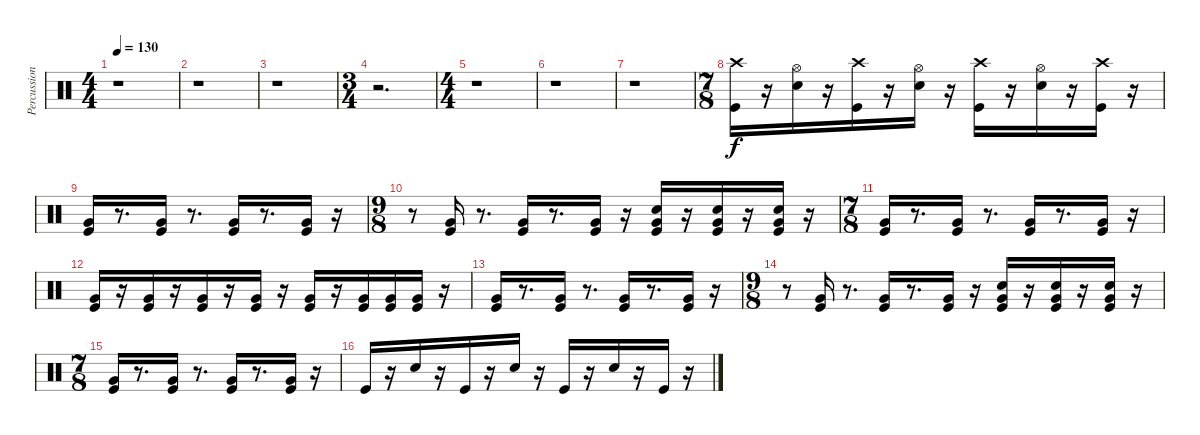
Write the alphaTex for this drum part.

\track ("Percussions" "Percussion") {instrument percussion}
\staff {score}
\articulation defaults
\ts (4 4)
\tempo 130
\clef neutral
\ks c
r.1{dy f} |
r.1 |
r.1 |
\ts (3 4)
r.2{d} |
\ts (4 4)
r.1 |
r.1 |
r.1 |
\ts (7 8)
("Kick (hit)" "Crash high (hit)").16 r.16 ("Hi-Hat (open)" "Electric Snare (hit)").16 r.16 ("Kick (hit)" "Crash high (hit)").16 r.16 ("Hi-Hat (open)" "Electric Snare (hit)").16 r.16 ("Crash high (hit)" "Kick (hit)").16 r.16 ("Hi-Hat (open)" "Electric Snare (hit)").16 r.16 ("Crash high (hit)" "Kick (hit)").16 r.16 |
("Kick (hit)" "Very Low Tom (hit)").16 r.8{d} ("Very Low Tom (hit)" "Kick (hit)").16 r.8{d} ("Kick (hit)" "Very Low Tom (hit)").16 r.8{d} ("Very Low Tom (hit)" "Kick (hit)").16 r.16 |
\ts (9 8)
r.8 ("Kick (hit)" "Very Low Tom (hit)").16 r.8{d} ("Kick (hit)" "Very Low Tom (hit)").16 r.8{d} ("Very Low Tom (hit)" "Kick (hit)").16 r.16 ("Electric Snare (hit)" "Very Low Tom (hit)" "Kick (hit)").16 r.16 ("Kick (hit)" "Very Low Tom (hit)" "Electric Snare (hit)").16 r.16 ("Electric Snare (hit)" "Kick (hit)" "Very Low Tom (hit)").16 r.16 |
\ts (7 8)
("Very Low Tom (hit)" "Kick (hit)").16 r.8{d} ("Kick (hit)" "Very Low Tom (hit)").16 r.8{d} ("Kick (hit)" "Very Low Tom (hit)").16 r.8{d} ("Kick (hit)" "Very Low Tom (hit)").16 r.16 |
("Very Low Tom (hit)" "Kick (hit)").16 r.16 ("Kick (hit)" "Very Low Tom (hit)").16 r.16 ("Very Low Tom (hit)" "Kick (hit)").16 r.16 ("Kick (hit)" "Very Low Tom (hit)").16 r.16 ("Kick (hit)" "Very Low Tom (hit)").16 r.16 ("Very Low Tom (hit)" "Kick (hit)").16 ("Very Low Tom (hit)" "Kick (hit)").16 ("Very Low Tom (hit)" "Kick (hit)").16 r.16 |
("Kick (hit)" "Very Low Tom (hit)").16 r.8{d} ("Very Low Tom (hit)" "Kick (hit)").16 r.8{d} ("Kick (hit)" "Very Low Tom (hit)").16 r.8{d} ("Very Low Tom (hit)" "Kick (hit)").16 r.16 |
\ts (9 8)
r.8 ("Kick (hit)" "Very Low Tom (hit)").16 r.8{d} ("Kick (hit)" "Very Low Tom (hit)").16 r.8{d} ("Very Low Tom (hit)" "Kick (hit)").16 r.16 ("Electric Snare (hit)" "Very Low Tom (hit)" "Kick (hit)").16 r.16 ("Kick (hit)" "Very Low Tom (hit)" "Electric Snare (hit)").16 r.16 ("Electric Snare (hit)" "Kick (hit)" "Very Low Tom (hit)").16 r.16 |
\ts (7 8)
("Kick (hit)" "Very Low Tom (hit)").16 r.8{d} ("Kick (hit)" "Very Low Tom (hit)").16 r.8{d} ("Kick (hit)" "Very Low Tom (hit)").16 r.8{d} ("Very Low Tom (hit)" "Kick (hit)").16 r.16 |
"Kick (hit)".16 r.16 "Electric Snare (hit)".16 r.16 "Kick (hit)".16 r.16 "Electric Snare (hit)".16 r.16 "Kick (hit)".16 r.16 "Electric Snare (hit)".16 r.16 "Kick (hit)".16 r.16
